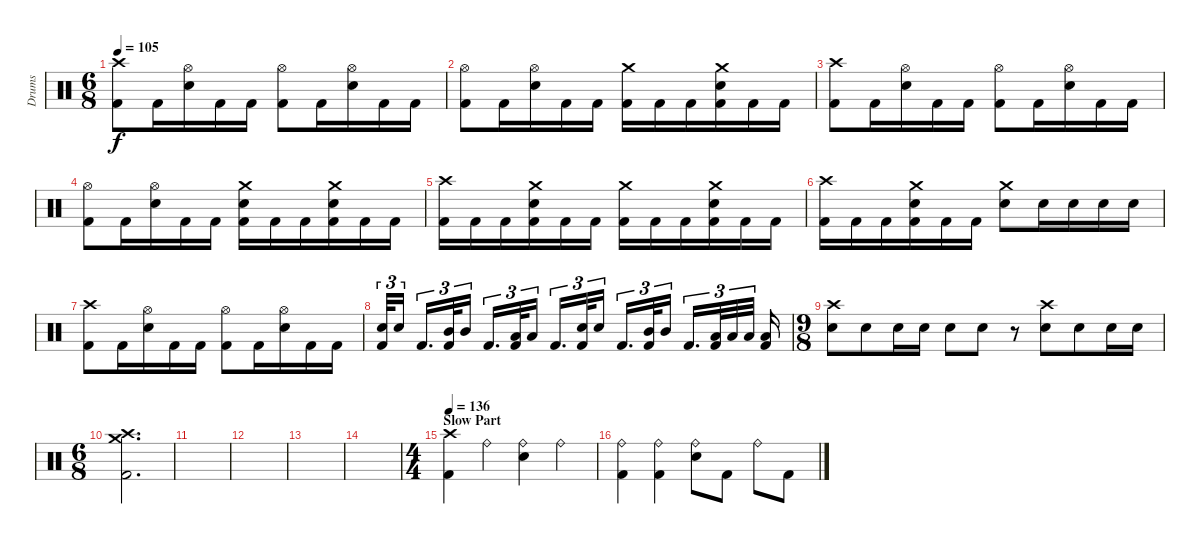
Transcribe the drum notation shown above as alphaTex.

\track ("Drums" "Drums") {instrument percussion}
\staff {score}
\articulation defaults
\ts (6 8)
\tempo 105
\clef neutral
\ks c
("Crash high (hit)" "Kick (hit) 2").8{dy f} "Kick (hit) 2".16 ("Hi-Hat (open)" "Electric Snare (hit)").16 "Kick (hit) 2".16 "Kick (hit) 2".16 ("Hi-Hat (open)" "Kick (hit) 2").8 "Kick (hit) 2".16 ("Hi-Hat (open)" "Electric Snare (hit)").16 "Kick (hit) 2".16 "Kick (hit) 2".16 |
("Hi-Hat (open)" "Kick (hit) 2").8 "Kick (hit) 2".16 ("Hi-Hat (open)" "Electric Snare (hit)").16 "Kick (hit) 2".16 "Kick (hit) 2".16 ("Crash medium (hit)" "Kick (hit) 2").16 "Kick (hit) 2".16 "Kick (hit) 2".16 ("Crash medium (hit)" "Electric Snare (hit)" "Kick (hit) 2").16 "Kick (hit) 2".16 "Kick (hit) 2".16 |
("Crash high (hit)" "Kick (hit) 2").8 "Kick (hit) 2".16 ("Hi-Hat (open)" "Electric Snare (hit)").16 "Kick (hit) 2".16 "Kick (hit) 2".16 ("Hi-Hat (open)" "Kick (hit) 2").8 "Kick (hit) 2".16 ("Hi-Hat (open)" "Electric Snare (hit)").16 "Kick (hit) 2".16 "Kick (hit) 2".16 |
("Hi-Hat (open)" "Kick (hit) 2").8 "Kick (hit) 2".16 ("Hi-Hat (open)" "Electric Snare (hit)").16 "Kick (hit) 2".16 "Kick (hit) 2".16 ("Crash medium (hit)" "Electric Snare (hit)" "Kick (hit) 2").16 "Kick (hit) 2".16 "Kick (hit) 2".16 ("Crash medium (hit)" "Electric Snare (hit)" "Kick (hit) 2").16 "Kick (hit) 2".16 "Kick (hit) 2".16 |
("Crash high (hit)" "Kick (hit) 2").16 "Kick (hit) 2".16 "Kick (hit) 2".16 ("Crash medium (hit)" "Electric Snare (hit)" "Kick (hit) 2").16 "Kick (hit) 2".16 "Kick (hit) 2".16 ("Crash medium (hit)" "Kick (hit) 2").16 "Kick (hit) 2".16 "Kick (hit) 2".16 ("Crash medium (hit)" "Electric Snare (hit)" "Kick (hit) 2").16 "Kick (hit) 2".16 "Kick (hit) 2".16 |
("Crash high (hit)" "Kick (hit) 2").16 "Kick (hit) 2".16 "Kick (hit) 2".16 ("Crash medium (hit)" "Electric Snare (hit)" "Kick (hit) 2").16 "Kick (hit) 2".16 "Kick (hit) 2".16 ("Crash medium (hit)" "Electric Snare (hit)").8 "Electric Snare (hit)".16 "Electric Snare (hit)".16 "Electric Snare (hit)".16 "Electric Snare (hit)".16 |
("Crash high (hit)" "Kick (hit) 2").8 "Kick (hit) 2".16 ("Hi-Hat (open)" "Electric Snare (hit)").16 "Kick (hit) 2".16 "Kick (hit) 2".16 ("Hi-Hat (open)" "Kick (hit) 2").8 "Kick (hit) 2".16 ("Hi-Hat (open)" "Electric Snare (hit)").16 "Kick (hit) 2".16 "Kick (hit) 2".16 |
("Electric Snare (hit)" "Kick (hit) 2").32{tu (3 2)} "Electric Snare (hit)".16{tu (3 2) beam splitsecondary} "Kick (hit) 2".16{d tu (3 2)} ("Mid Tom (hit)" "Kick (hit) 2").32{tu (3 2)} "Mid Tom (hit)".16{tu (3 2) beam splitsecondary} "Kick (hit) 2".16{d tu (3 2)} ("Low Tom (hit)" "Kick (hit) 2").32{tu (3 2)} "Low Tom (hit)".16{tu (3 2) beam splitsecondary} "Kick (hit) 2".16{d tu (3 2)} ("Electric Snare (hit)" "Kick (hit) 2").32{tu (3 2)} "Electric Snare (hit)".16{tu (3 2) beam splitsecondary} "Kick (hit) 2".16{d tu (3 2)} ("Mid Tom (hit)" "Kick (hit) 2").32{tu (3 2)} "Mid Tom (hit)".16{tu (3 2) beam splitsecondary} "Kick (hit) 2".16{d tu (3 2)} ("Low Tom (hit)" "Kick (hit) 2").32{tu (3 2)} "Low Tom (hit)".32{tu (3 2)} "Low Tom (hit)".32{tu (3 2) beam splitsecondary} ("Low Tom (hit)" "Kick (hit) 2").16 |
\ts (9 8)
("Crash high (hit)" "Electric Snare (hit)").8 "Electric Snare (hit)".8 "Electric Snare (hit)".16 "Electric Snare (hit)".16 "Electric Snare (hit)".8 "Electric Snare (hit)".8 r.8 ("Crash high (hit)" "Electric Snare (hit)").8 "Electric Snare (hit)".8 "Electric Snare (hit)".16 "Electric Snare (hit)".16 |
\ts (6 8)
("Crash high (hit)" "Crash medium (hit)" "Kick (hit) 2").2{d} |
|
|
|
|
\ts (4 4)
\section ("" "Slow Part")
\tempo 136
("Crash high (hit)" "Kick (hit) 2").4 "Ride (bell)".4 ("Ride (bell)" "Electric Snare (hit)").4 "Ride (bell)".4 |
("Ride (bell)" "Kick (hit) 2").4 ("Ride (bell)" "Kick (hit) 2").4 ("Ride (bell)" "Electric Snare (hit)").8 "Kick (hit) 2".8 "Ride (bell)".8 "Kick (hit) 2".8
